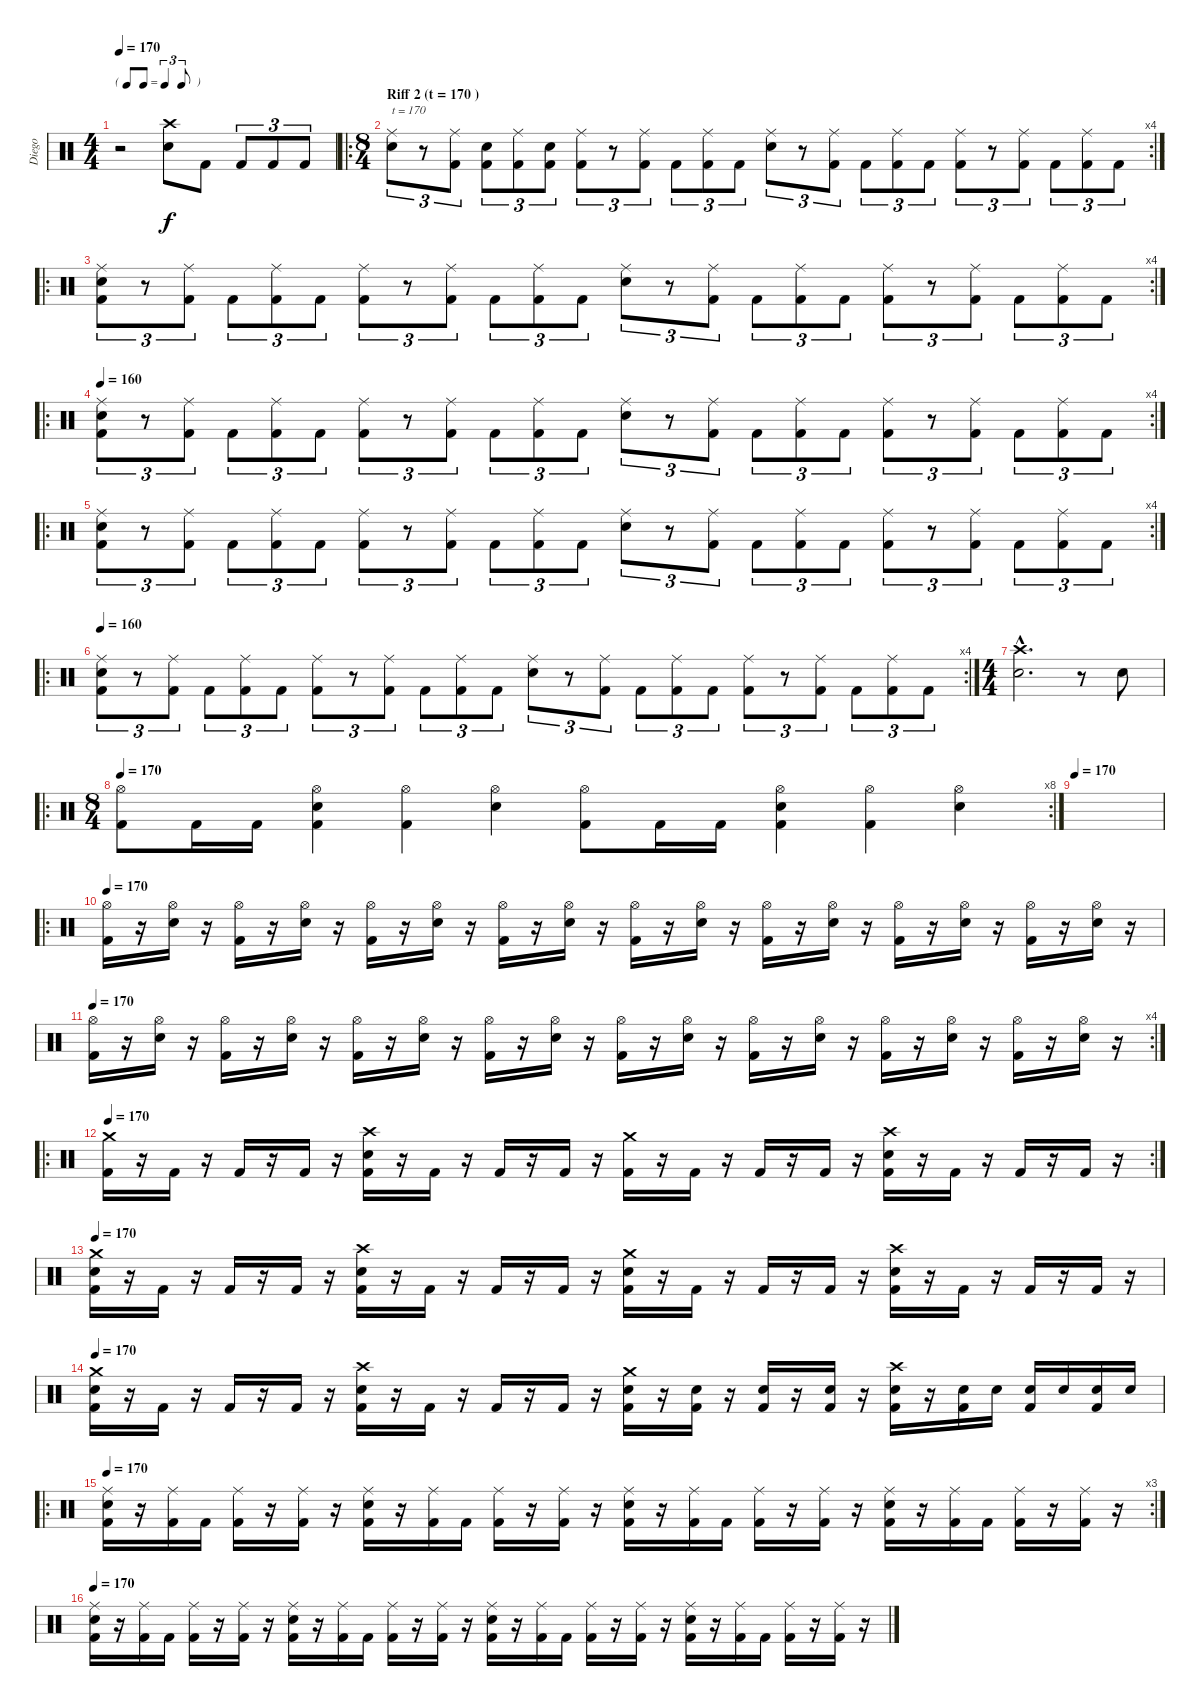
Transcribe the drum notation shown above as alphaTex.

\track ("Diego" "Diego") {instrument percussion}
\staff {score}
\articulation defaults
\ts (4 4)
\tf triplet8th
\tempo 170
\clef neutral
\ks c
r.2{dy f} ("Crash high (hit)" "Snare (hit) 2").8 "Kick (hit) 2".8 "Kick (hit) 2".8{tu (3 2)} "Kick (hit) 2".8{tu (3 2)} "Kick (hit) 2".8{tu (3 2)} |
\ro
\rc 4
\ts (8 4)
\section ("" "Riff 2 (t = 170 )")
("Ride (middle)" "Snare (hit) 2").8{tu (3 2) txt "t = 170"} r.8{tu (3 2)} ("Ride (middle)" "Kick (hit) 2").8{tu (3 2)} ("Snare (hit) 2" "Kick (hit) 2").8{tu (3 2)} ("Ride (middle)" "Kick (hit) 2").8{tu (3 2)} ("Snare (hit) 2" "Kick (hit) 2").8{tu (3 2)} ("Ride (middle)" "Kick (hit) 2").8{tu (3 2)} r.8{tu (3 2)} ("Ride (middle)" "Kick (hit) 2").8{tu (3 2)} "Kick (hit) 2".8{tu (3 2)} ("Ride (middle)" "Kick (hit) 2").8{tu (3 2)} "Kick (hit) 2".8{tu (3 2)} ("Ride (middle)" "Snare (hit) 2").8{tu (3 2)} r.8{tu (3 2)} ("Ride (middle)" "Kick (hit) 2").8{tu (3 2)} "Kick (hit) 2".8{tu (3 2)} ("Ride (middle)" "Kick (hit) 2").8{tu (3 2)} "Kick (hit) 2".8{tu (3 2)} ("Ride (middle)" "Kick (hit) 2").8{tu (3 2)} r.8{tu (3 2)} ("Ride (middle)" "Kick (hit) 2").8{tu (3 2)} "Kick (hit) 2".8{tu (3 2)} ("Ride (middle)" "Kick (hit) 2").8{tu (3 2)} "Kick (hit) 2".8{tu (3 2)} |
\ro
\rc 4
("Ride (middle)" "Snare (hit) 2" "Kick (hit) 2").8{tu (3 2)} r.8{tu (3 2)} ("Ride (middle)" "Kick (hit) 2").8{tu (3 2)} "Kick (hit) 2".8{tu (3 2)} ("Ride (middle)" "Kick (hit) 2").8{tu (3 2)} "Kick (hit) 2".8{tu (3 2)} ("Ride (middle)" "Kick (hit) 2").8{tu (3 2)} r.8{tu (3 2)} ("Ride (middle)" "Kick (hit) 2").8{tu (3 2)} "Kick (hit) 2".8{tu (3 2)} ("Ride (middle)" "Kick (hit) 2").8{tu (3 2)} "Kick (hit) 2".8{tu (3 2)} ("Ride (middle)" "Snare (hit) 2").8{tu (3 2)} r.8{tu (3 2)} ("Ride (middle)" "Kick (hit) 2").8{tu (3 2)} "Kick (hit) 2".8{tu (3 2)} ("Ride (middle)" "Kick (hit) 2").8{tu (3 2)} "Kick (hit) 2".8{tu (3 2)} ("Ride (middle)" "Kick (hit) 2").8{tu (3 2)} r.8{tu (3 2)} ("Ride (middle)" "Kick (hit) 2").8{tu (3 2)} "Kick (hit) 2".8{tu (3 2)} ("Ride (middle)" "Kick (hit) 2").8{tu (3 2)} "Kick (hit) 2".8{tu (3 2)} |
\ro
\rc 4
\tempo 160
("Ride (middle)" "Snare (hit) 2" "Kick (hit) 2").8{tu (3 2)} r.8{tu (3 2)} ("Ride (middle)" "Kick (hit) 2").8{tu (3 2)} "Kick (hit) 2".8{tu (3 2)} ("Ride (middle)" "Kick (hit) 2").8{tu (3 2)} "Kick (hit) 2".8{tu (3 2)} ("Ride (middle)" "Kick (hit) 2").8{tu (3 2)} r.8{tu (3 2)} ("Ride (middle)" "Kick (hit) 2").8{tu (3 2)} "Kick (hit) 2".8{tu (3 2)} ("Ride (middle)" "Kick (hit) 2").8{tu (3 2)} "Kick (hit) 2".8{tu (3 2)} ("Ride (middle)" "Snare (hit) 2").8{tu (3 2)} r.8{tu (3 2)} ("Ride (middle)" "Kick (hit) 2").8{tu (3 2)} "Kick (hit) 2".8{tu (3 2)} ("Ride (middle)" "Kick (hit) 2").8{tu (3 2)} "Kick (hit) 2".8{tu (3 2)} ("Ride (middle)" "Kick (hit) 2").8{tu (3 2)} r.8{tu (3 2)} ("Ride (middle)" "Kick (hit) 2").8{tu (3 2)} "Kick (hit) 2".8{tu (3 2)} ("Ride (middle)" "Kick (hit) 2").8{tu (3 2)} "Kick (hit) 2".8{tu (3 2)} |
\ro
\rc 4
("Ride (middle)" "Snare (hit) 2" "Kick (hit) 2").8{tu (3 2)} r.8{tu (3 2)} ("Ride (middle)" "Kick (hit) 2").8{tu (3 2)} "Kick (hit) 2".8{tu (3 2)} ("Ride (middle)" "Kick (hit) 2").8{tu (3 2)} "Kick (hit) 2".8{tu (3 2)} ("Ride (middle)" "Kick (hit) 2").8{tu (3 2)} r.8{tu (3 2)} ("Ride (middle)" "Kick (hit) 2").8{tu (3 2)} "Kick (hit) 2".8{tu (3 2)} ("Ride (middle)" "Kick (hit) 2").8{tu (3 2)} "Kick (hit) 2".8{tu (3 2)} ("Ride (middle)" "Snare (hit) 2").8{tu (3 2)} r.8{tu (3 2)} ("Ride (middle)" "Kick (hit) 2").8{tu (3 2)} "Kick (hit) 2".8{tu (3 2)} ("Ride (middle)" "Kick (hit) 2").8{tu (3 2)} "Kick (hit) 2".8{tu (3 2)} ("Ride (middle)" "Kick (hit) 2").8{tu (3 2)} r.8{tu (3 2)} ("Ride (middle)" "Kick (hit) 2").8{tu (3 2)} "Kick (hit) 2".8{tu (3 2)} ("Ride (middle)" "Kick (hit) 2").8{tu (3 2)} "Kick (hit) 2".8{tu (3 2)} |
\ro
\rc 4
\tempo 160
("Ride (middle)" "Snare (hit) 2" "Kick (hit) 2").8{tu (3 2)} r.8{tu (3 2)} ("Ride (middle)" "Kick (hit) 2").8{tu (3 2)} "Kick (hit) 2".8{tu (3 2)} ("Ride (middle)" "Kick (hit) 2").8{tu (3 2)} "Kick (hit) 2".8{tu (3 2)} ("Ride (middle)" "Kick (hit) 2").8{tu (3 2)} r.8{tu (3 2)} ("Ride (middle)" "Kick (hit) 2").8{tu (3 2)} "Kick (hit) 2".8{tu (3 2)} ("Ride (middle)" "Kick (hit) 2").8{tu (3 2)} "Kick (hit) 2".8{tu (3 2)} ("Ride (middle)" "Snare (hit) 2").8{tu (3 2)} r.8{tu (3 2)} ("Ride (middle)" "Kick (hit) 2").8{tu (3 2)} "Kick (hit) 2".8{tu (3 2)} ("Ride (middle)" "Kick (hit) 2").8{tu (3 2)} "Kick (hit) 2".8{tu (3 2)} ("Ride (middle)" "Kick (hit) 2").8{tu (3 2)} r.8{tu (3 2)} ("Ride (middle)" "Kick (hit) 2").8{tu (3 2)} "Kick (hit) 2".8{tu (3 2)} ("Ride (middle)" "Kick (hit) 2").8{tu (3 2)} "Kick (hit) 2".8{tu (3 2)} |
\ts (4 4)
("Crash high (hit)"{hac} "Snare (hit) 2"{hac}).2{d} r.8 "Snare (hit) 2".8 |
\ro
\rc 8
\ts (8 4)
\tempo 170
("Hi-Hat (open)" "Kick (hit) 2").8 "Kick (hit) 2".16 "Kick (hit) 2".16 ("Hi-Hat (open)" "Snare (hit) 2" "Kick (hit) 2").4 ("Hi-Hat (open)" "Kick (hit) 2").4 ("Hi-Hat (open)" "Snare (hit) 2").4 ("Hi-Hat (open)" "Kick (hit) 2").8 "Kick (hit) 2".16 "Kick (hit) 2".16 ("Hi-Hat (open)" "Snare (hit) 2" "Kick (hit) 2").4 ("Hi-Hat (open)" "Kick (hit) 2").4 ("Hi-Hat (open)" "Snare (hit) 2").4 |
\tempo 170
|
\ro
\tempo 170
("Hi-Hat (open)" "Kick (hit) 2").16 r.16 ("Hi-Hat (open)" "Snare (hit) 2").16 r.16 ("Hi-Hat (open)" "Kick (hit) 2").16 r.16 ("Hi-Hat (open)" "Snare (hit) 2").16 r.16 ("Hi-Hat (open)" "Kick (hit) 2").16 r.16 ("Hi-Hat (open)" "Snare (hit) 2").16 r.16 ("Hi-Hat (open)" "Kick (hit) 2").16 r.16 ("Hi-Hat (open)" "Snare (hit) 2").16 r.16 ("Hi-Hat (open)" "Kick (hit) 2").16 r.16 ("Hi-Hat (open)" "Snare (hit) 2").16 r.16 ("Hi-Hat (open)" "Kick (hit) 2").16 r.16 ("Hi-Hat (open)" "Snare (hit) 2").16 r.16 ("Hi-Hat (open)" "Kick (hit) 2").16 r.16 ("Hi-Hat (open)" "Snare (hit) 2").16 r.16 ("Hi-Hat (open)" "Kick (hit) 2").16 r.16 ("Hi-Hat (open)" "Snare (hit) 2").16 r.16 |
\rc 4
\tempo 170
("Hi-Hat (open)" "Kick (hit) 2").16 r.16 ("Hi-Hat (open)" "Snare (hit) 2").16 r.16 ("Hi-Hat (open)" "Kick (hit) 2").16 r.16 ("Hi-Hat (open)" "Snare (hit) 2").16 r.16 ("Hi-Hat (open)" "Kick (hit) 2").16 r.16 ("Hi-Hat (open)" "Snare (hit) 2").16 r.16 ("Hi-Hat (open)" "Kick (hit) 2").16 r.16 ("Hi-Hat (open)" "Snare (hit) 2").16 r.16 ("Hi-Hat (open)" "Kick (hit) 2").16 r.16 ("Hi-Hat (open)" "Snare (hit) 2").16 r.16 ("Hi-Hat (open)" "Kick (hit) 2").16 r.16 ("Hi-Hat (open)" "Snare (hit) 2").16 r.16 ("Hi-Hat (open)" "Kick (hit) 2").16 r.16 ("Hi-Hat (open)" "Snare (hit) 2").16 r.16 ("Hi-Hat (open)" "Kick (hit) 2").16 r.16 ("Hi-Hat (open)" "Snare (hit) 2").16 r.16 |
\ro
\rc 2
\tempo 170
("Crash medium (hit)" "Kick (hit) 2").16 r.16 "Kick (hit) 2".16 r.16 "Kick (hit) 2".16 r.16 "Kick (hit) 2".16 r.16 ("Crash high (hit)" "Snare (hit) 2" "Kick (hit) 2").16 r.16 "Kick (hit) 2".16 r.16 "Kick (hit) 2".16 r.16 "Kick (hit) 2".16 r.16 ("Crash medium (hit)" "Kick (hit) 2").16 r.16 "Kick (hit) 2".16 r.16 "Kick (hit) 2".16 r.16 "Kick (hit) 2".16 r.16 ("Crash high (hit)" "Snare (hit) 2" "Kick (hit) 2").16 r.16 "Kick (hit) 2".16 r.16 "Kick (hit) 2".16 r.16 "Kick (hit) 2".16 r.16 |
\tempo 170
("Crash medium (hit)" "Snare (hit) 2" "Kick (hit) 2").16 r.16 "Kick (hit) 2".16 r.16 "Kick (hit) 2".16 r.16 "Kick (hit) 2".16 r.16 ("Crash high (hit)" "Snare (hit) 2" "Kick (hit) 2").16 r.16 "Kick (hit) 2".16 r.16 "Kick (hit) 2".16 r.16 "Kick (hit) 2".16 r.16 ("Crash medium (hit)" "Snare (hit) 2" "Kick (hit) 2").16 r.16 "Kick (hit) 2".16 r.16 "Kick (hit) 2".16 r.16 "Kick (hit) 2".16 r.16 ("Crash high (hit)" "Snare (hit) 2" "Kick (hit) 2").16 r.16 "Kick (hit) 2".16 r.16 "Kick (hit) 2".16 r.16 "Kick (hit) 2".16 r.16 |
\tempo 170
("Crash medium (hit)" "Snare (hit) 2" "Kick (hit) 2").16 r.16 "Kick (hit) 2".16 r.16 "Kick (hit) 2".16 r.16 "Kick (hit) 2".16 r.16 ("Crash high (hit)" "Snare (hit) 2" "Kick (hit) 2").16 r.16 "Kick (hit) 2".16 r.16 "Kick (hit) 2".16 r.16 "Kick (hit) 2".16 r.16 ("Crash medium (hit)" "Snare (hit) 2" "Kick (hit) 2").16 r.16 ("Snare (hit) 2" "Kick (hit) 2").16 r.16 ("Snare (hit) 2" "Kick (hit) 2").16 r.16 ("Snare (hit) 2" "Kick (hit) 2").16 r.16 ("Crash high (hit)" "Snare (hit) 2" "Kick (hit) 2").16 r.16 ("Snare (hit) 2" "Kick (hit) 2").16 "Snare (hit) 2".16 ("Snare (hit) 2" "Kick (hit) 2").16 "Snare (hit) 2".16 ("Snare (hit) 2" "Kick (hit) 2").16 "Snare (hit) 2".16 |
\ro
\rc 3
\tempo 170
("Ride (middle)" "Snare (hit) 2" "Kick (hit) 2").16 r.16 ("Ride (middle)" "Kick (hit) 2").16 "Kick (hit) 2".16 ("Ride (middle)" "Kick (hit) 2").16 r.16 ("Ride (middle)" "Kick (hit) 2").16 r.16 ("Ride (middle)" "Snare (hit) 2" "Kick (hit) 2").16 r.16 ("Ride (middle)" "Kick (hit) 2").16 "Kick (hit) 2".16 ("Ride (middle)" "Kick (hit) 2").16 r.16 ("Ride (middle)" "Kick (hit) 2").16 r.16 ("Ride (middle)" "Snare (hit) 2" "Kick (hit) 2").16 r.16 ("Ride (middle)" "Kick (hit) 2").16 "Kick (hit) 2".16 ("Ride (middle)" "Kick (hit) 2").16 r.16 ("Ride (middle)" "Kick (hit) 2").16 r.16 ("Ride (middle)" "Snare (hit) 2" "Kick (hit) 2").16 r.16 ("Ride (middle)" "Kick (hit) 2").16 "Kick (hit) 2".16 ("Ride (middle)" "Kick (hit) 2").16 r.16 ("Ride (middle)" "Kick (hit) 2").16 r.16 |
\tempo 170
("Ride (middle)" "Snare (hit) 2" "Kick (hit) 2").16 r.16 ("Ride (middle)" "Kick (hit) 2").16 "Kick (hit) 2".16 ("Ride (middle)" "Kick (hit) 2").16 r.16 ("Ride (middle)" "Kick (hit) 2").16 r.16 ("Ride (middle)" "Snare (hit) 2" "Kick (hit) 2").16 r.16 ("Ride (middle)" "Kick (hit) 2").16 "Kick (hit) 2".16 ("Ride (middle)" "Kick (hit) 2").16 r.16 ("Ride (middle)" "Kick (hit) 2").16 r.16 ("Ride (middle)" "Snare (hit) 2" "Kick (hit) 2").16 r.16 ("Ride (middle)" "Kick (hit) 2").16 "Kick (hit) 2".16 ("Ride (middle)" "Kick (hit) 2").16 r.16 ("Ride (middle)" "Kick (hit) 2").16 r.16 ("Ride (middle)" "Snare (hit) 2" "Kick (hit) 2").16 r.16 ("Ride (middle)" "Kick (hit) 2").16 "Kick (hit) 2".16 ("Ride (middle)" "Kick (hit) 2").16 r.16 ("Ride (middle)" "Kick (hit) 2").16 r.16
